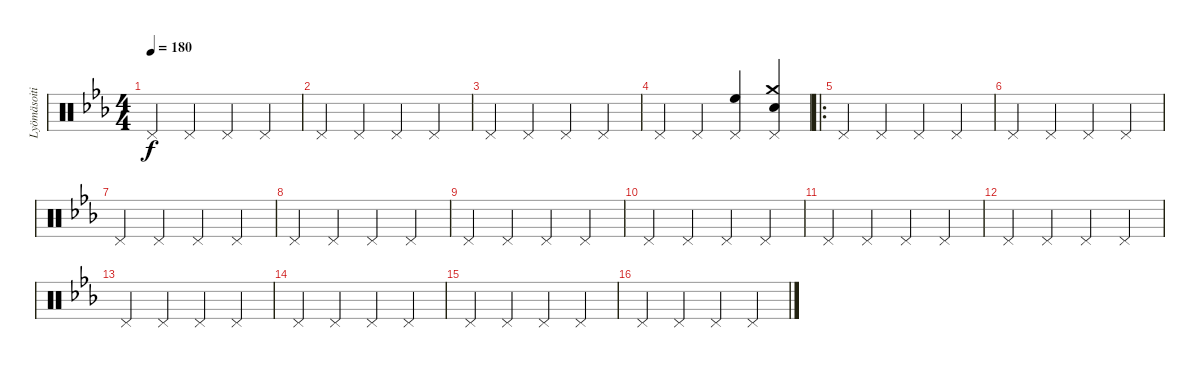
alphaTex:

\track ("Lyömäsoitin" "Lyömäsoiti") {instrument percussion}
\staff {score}
\articulation defaults
\ts (4 4)
\tempo 180
\clef neutral
\ks eb "Pedal Hi-Hat (hit)".4{dy f} "Pedal Hi-Hat (hit)".4 "Pedal Hi-Hat (hit)".4 "Pedal Hi-Hat (hit)".4
|
"Pedal Hi-Hat (hit)".4 "Pedal Hi-Hat (hit)".4 "Pedal Hi-Hat (hit)".4 "Pedal Hi-Hat (hit)".4 |
"Pedal Hi-Hat (hit)".4 "Pedal Hi-Hat (hit)".4 "Pedal Hi-Hat (hit)".4 "Pedal Hi-Hat (hit)".4 |
"Pedal Hi-Hat (hit)".4 "Pedal Hi-Hat (hit)".4 ("Pedal Hi-Hat (hit)" "High Floor Tom (hit)").4 ("Pedal Hi-Hat (hit)" "Crash medium (hit)" "Snare (hit) 2").4 |
\ro "Pedal Hi-Hat (hit)".4 "Pedal Hi-Hat (hit)".4 "Pedal Hi-Hat (hit)".4 "Pedal Hi-Hat (hit)".4
|
"Pedal Hi-Hat (hit)".4 "Pedal Hi-Hat (hit)".4 "Pedal Hi-Hat (hit)".4 "Pedal Hi-Hat (hit)".4 |
"Pedal Hi-Hat (hit)".4 "Pedal Hi-Hat (hit)".4 "Pedal Hi-Hat (hit)".4 "Pedal Hi-Hat (hit)".4 |
"Pedal Hi-Hat (hit)".4 "Pedal Hi-Hat (hit)".4 "Pedal Hi-Hat (hit)".4 "Pedal Hi-Hat (hit)".4 |
"Pedal Hi-Hat (hit)".4 "Pedal Hi-Hat (hit)".4 "Pedal Hi-Hat (hit)".4 "Pedal Hi-Hat (hit)".4 |
"Pedal Hi-Hat (hit)".4 "Pedal Hi-Hat (hit)".4 "Pedal Hi-Hat (hit)".4 "Pedal Hi-Hat (hit)".4 |
"Pedal Hi-Hat (hit)".4 "Pedal Hi-Hat (hit)".4 "Pedal Hi-Hat (hit)".4 "Pedal Hi-Hat (hit)".4 |
"Pedal Hi-Hat (hit)".4 "Pedal Hi-Hat (hit)".4 "Pedal Hi-Hat (hit)".4 "Pedal Hi-Hat (hit)".4 |
"Pedal Hi-Hat (hit)".4 "Pedal Hi-Hat (hit)".4 "Pedal Hi-Hat (hit)".4 "Pedal Hi-Hat (hit)".4 |
"Pedal Hi-Hat (hit)".4 "Pedal Hi-Hat (hit)".4 "Pedal Hi-Hat (hit)".4 "Pedal Hi-Hat (hit)".4 |
"Pedal Hi-Hat (hit)".4 "Pedal Hi-Hat (hit)".4 "Pedal Hi-Hat (hit)".4 "Pedal Hi-Hat (hit)".4 |
"Pedal Hi-Hat (hit)".4 "Pedal Hi-Hat (hit)".4 "Pedal Hi-Hat (hit)".4 "Pedal Hi-Hat (hit)".4
